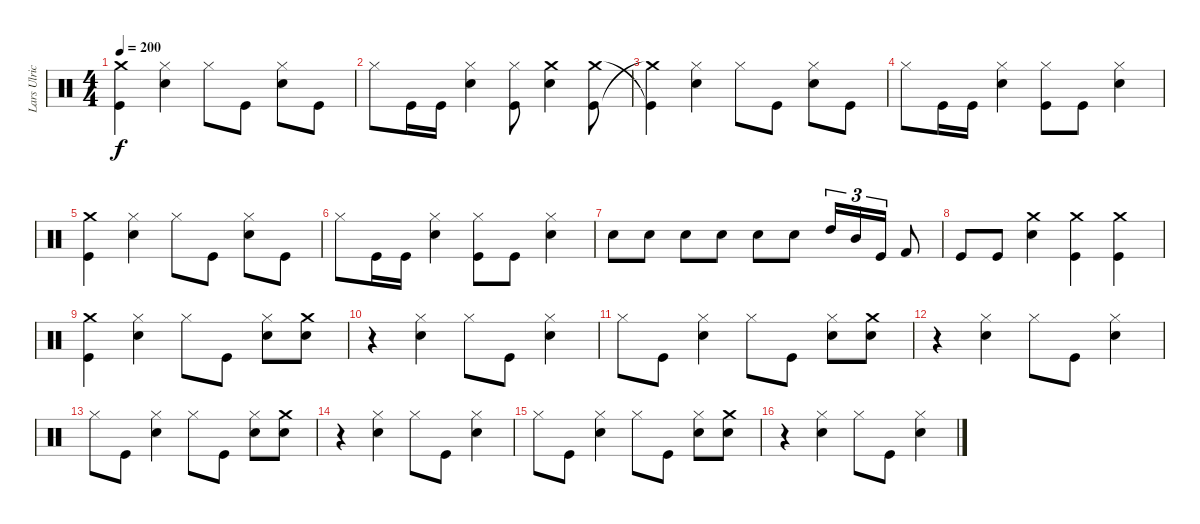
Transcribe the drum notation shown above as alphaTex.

\track ("Lars Ulrich (Drums)" "Lars Ulric") {instrument percussion}
\staff {score}
\articulation defaults
\ts (4 4)
\tempo 200
\clef neutral
\ks c
("Kick (hit)" "Crash medium (hit)").4{dy f} ("Hi-Hat (closed)" "Snare (hit) 2").4 "Hi-Hat (closed)".8 "Kick (hit)".8 ("Snare (hit) 2" "Hi-Hat (closed)").8 "Kick (hit)".8 |
"Hi-Hat (closed)".8 "Kick (hit)".16 "Kick (hit)".16 ("Snare (hit) 2" "Hi-Hat (closed)").4 ("Kick (hit)" "Hi-Hat (closed)").8 ("Snare (hit) 2" "Crash medium (hit)").4 ("Crash medium (hit)" "Kick (hit)").8 |
("Kick (hit)"{t} "Crash medium (hit)"{t}).4 ("Hi-Hat (closed)" "Snare (hit) 2").4 "Hi-Hat (closed)".8 "Kick (hit)".8 ("Snare (hit) 2" "Hi-Hat (closed)").8 "Kick (hit)".8 |
"Hi-Hat (closed)".8 "Kick (hit)".16 "Kick (hit)".16 ("Snare (hit) 2" "Hi-Hat (closed)").4 ("Hi-Hat (closed)" "Kick (hit)").8 "Kick (hit)".8 ("Snare (hit) 2" "Hi-Hat (closed)").4 |
("Kick (hit)" "Crash medium (hit)").4 ("Hi-Hat (closed)" "Snare (hit) 2").4 "Hi-Hat (closed)".8 "Kick (hit)".8 ("Snare (hit) 2" "Hi-Hat (closed)").8 "Kick (hit)".8 |
"Hi-Hat (closed)".8 "Kick (hit)".16 "Kick (hit)".16 ("Snare (hit) 2" "Hi-Hat (closed)").4 ("Hi-Hat (closed)" "Kick (hit)").8 "Kick (hit)".8 ("Snare (hit) 2" "Hi-Hat (closed)").4 |
"Snare (hit) 2".8 "Snare (hit) 2".8 "Snare (hit) 2".8 "Snare (hit) 2".8 "Snare (hit) 2".8 "Snare (hit) 2".8 "High Tom (hit)".16{tu (3 2)} "Mid Tom (hit)".16{tu (3 2)} "Kick (hit)".16{tu (3 2)} "Kick (hit) 2".8 |
"Kick (hit)".8 "Kick (hit)".8 ("Crash medium (hit)" "Snare (hit) 2").4 ("Crash medium (hit)" "Kick (hit)").4 ("Crash medium (hit)" "Kick (hit)").4 |
("Kick (hit)" "Crash medium (hit)").4 ("Hi-Hat (closed)" "Snare (hit) 2").4 "Hi-Hat (closed)".8 "Kick (hit)".8 ("Hi-Hat (closed)" "Snare (hit) 2").8 ("Crash medium (hit)" "Snare (hit) 2").8 |
r.4 ("Snare (hit) 2" "Hi-Hat (closed)").4 "Hi-Hat (closed)".8 "Kick (hit)".8 ("Snare (hit) 2" "Hi-Hat (closed)").4 |
"Hi-Hat (closed)".8 "Kick (hit)".8 ("Snare (hit) 2" "Hi-Hat (closed)").4 "Hi-Hat (closed)".8 "Kick (hit)".8 ("Hi-Hat (closed)" "Snare (hit) 2").8 ("Crash medium (hit)" "Snare (hit) 2").8 |
r.4 ("Snare (hit) 2" "Hi-Hat (closed)").4 "Hi-Hat (closed)".8 "Kick (hit)".8 ("Snare (hit) 2" "Hi-Hat (closed)").4 |
"Hi-Hat (closed)".8 "Kick (hit)".8 ("Snare (hit) 2" "Hi-Hat (closed)").4 "Hi-Hat (closed)".8 "Kick (hit)".8 ("Hi-Hat (closed)" "Snare (hit) 2").8 ("Crash medium (hit)" "Snare (hit) 2").8 |
r.4 ("Snare (hit) 2" "Hi-Hat (closed)").4 "Hi-Hat (closed)".8 "Kick (hit)".8 ("Snare (hit) 2" "Hi-Hat (closed)").4 |
"Hi-Hat (closed)".8 "Kick (hit)".8 ("Snare (hit) 2" "Hi-Hat (closed)").4 "Hi-Hat (closed)".8 "Kick (hit)".8 ("Hi-Hat (closed)" "Snare (hit) 2").8 ("Crash medium (hit)" "Snare (hit) 2").8 |
r.4 ("Snare (hit) 2" "Hi-Hat (closed)").4 "Hi-Hat (closed)".8 "Kick (hit)".8 ("Snare (hit) 2" "Hi-Hat (closed)").4
